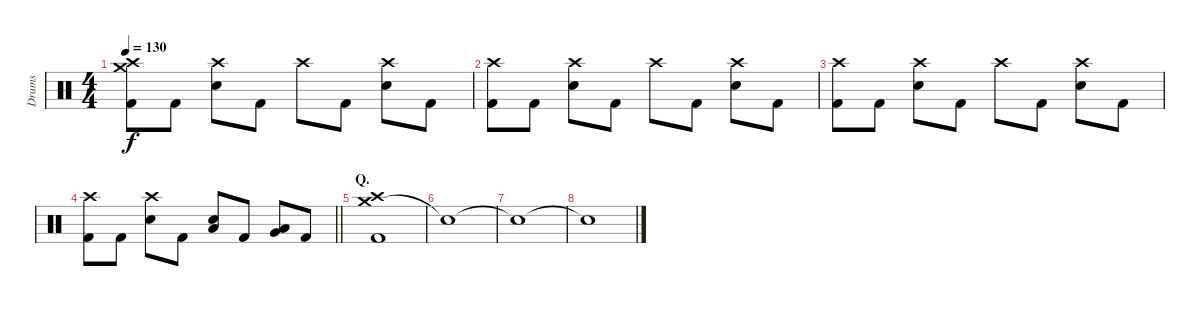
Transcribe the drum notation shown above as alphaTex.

\track ("Drums" "Drums") {instrument percussion}
\staff {score}
\articulation defaults
\ts (4 4)
\tempo 130
\clef neutral
\ks c
("Crash medium (hit)" "Crash high (hit)" "Kick (hit) 2").8{dy f} "Kick (hit) 2".8 ("Crash high (hit)" "Electric Snare (hit)").8 "Kick (hit) 2".8 "Crash high (hit)".8 "Kick (hit) 2".8 ("Crash high (hit)" "Electric Snare (hit)").8 "Kick (hit) 2".8 |
("Crash high (hit)" "Kick (hit) 2").8 "Kick (hit) 2".8 ("Crash high (hit)" "Electric Snare (hit)").8 "Kick (hit) 2".8 "Crash high (hit)".8 "Kick (hit) 2".8 ("Crash high (hit)" "Electric Snare (hit)").8 "Kick (hit) 2".8 |
("Crash high (hit)" "Kick (hit) 2").8 "Kick (hit) 2".8 ("Crash high (hit)" "Electric Snare (hit)").8 "Kick (hit) 2".8 "Crash high (hit)".8 "Kick (hit) 2".8 ("Crash high (hit)" "Electric Snare (hit)").8 "Kick (hit) 2".8 |
\barLineRight lightlight
("Crash high (hit)" "Kick (hit) 2").8 "Kick (hit) 2".8 ("Crash high (hit)" "Electric Snare (hit)").8 "Kick (hit) 2".8 ("Electric Snare (hit)" "Low Floor Tom (hit)").8{bu 120} "Kick (hit) 2".8 ("Very Low Tom (hit)" "Low Floor Tom (hit)").8{bu 120} "Kick (hit) 2".8 |
\section ("" "Q.")
("Crash medium (hit)" "Crash high (hit)" "Kick (hit) 2").1 |
"Snare (hit)"{t}.1 |
"Snare (hit)"{t}.1 |
"Snare (hit)"{t}.1
